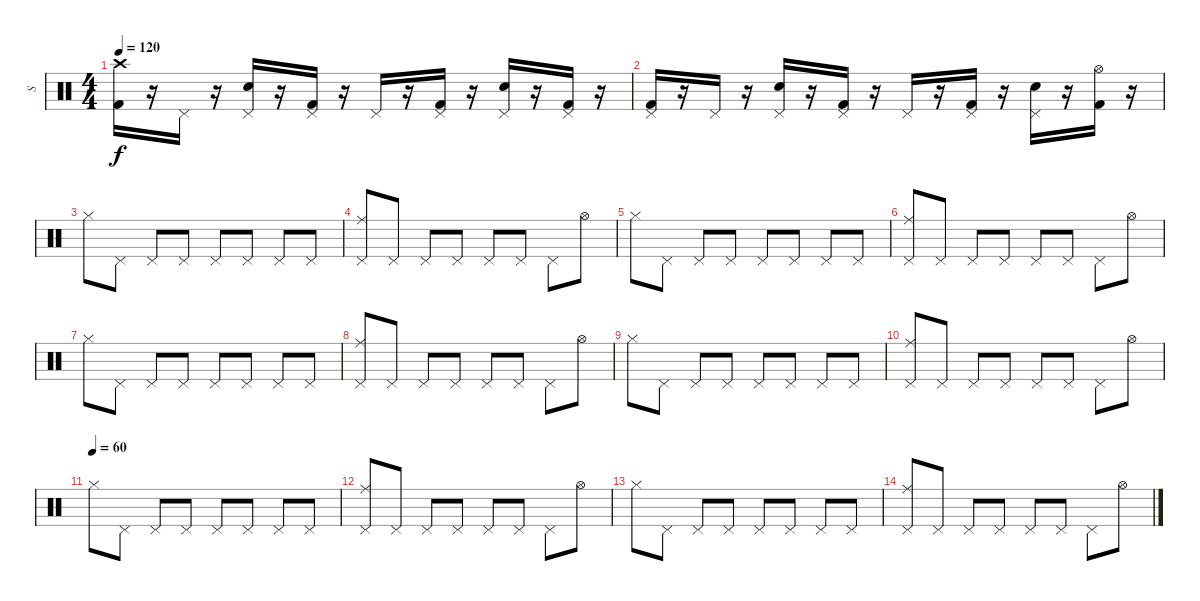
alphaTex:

\track ("  S" "  S") {instrument percussion}
\staff {score}
\articulation defaults
\ts (4 4)
\tempo 120
\clef neutral
\ks c
("Crash high (hit)" "Kick (hit) 2").16{dy f} r.16 "Pedal Hi-Hat (hit)".16 r.16 ("Pedal Hi-Hat (hit)" "Snare (hit) 2").16 r.16 ("Pedal Hi-Hat (hit)" "Kick (hit) 2").16 r.16 "Pedal Hi-Hat (hit)".16 r.16 ("Pedal Hi-Hat (hit)" "Kick (hit) 2").16 r.16 ("Pedal Hi-Hat (hit)" "Snare (hit) 2").16 r.16 ("Pedal Hi-Hat (hit)" "Kick (hit) 2").16 r.16 |
("Pedal Hi-Hat (hit)" "Kick (hit) 2").16 r.16 "Pedal Hi-Hat (hit)".16 r.16 ("Pedal Hi-Hat (hit)" "Snare (hit) 2").16 r.16 ("Pedal Hi-Hat (hit)" "Kick (hit) 2").16 r.16 "Pedal Hi-Hat (hit)".16 r.16 ("Pedal Hi-Hat (hit)" "Kick (hit) 2").16 r.16 ("Pedal Hi-Hat (hit)" "Snare (hit) 2").16 r.16 ("Hi-Hat (open)" "Kick (hit) 2").16 r.16 |
"Hi-Hat (closed)".8 "Pedal Hi-Hat (hit)".8 "Pedal Hi-Hat (hit)".8 "Pedal Hi-Hat (hit)".8 "Pedal Hi-Hat (hit)".8 "Pedal Hi-Hat (hit)".8 "Pedal Hi-Hat (hit)".8 "Pedal Hi-Hat (hit)".8 |
("Pedal Hi-Hat (hit)" "Ride (middle)").8 "Pedal Hi-Hat (hit)".8 "Pedal Hi-Hat (hit)".8 "Pedal Hi-Hat (hit)".8 "Pedal Hi-Hat (hit)".8 "Pedal Hi-Hat (hit)".8 "Pedal Hi-Hat (hit)".8 "Hi-Hat (open)".8 |
"Hi-Hat (closed)".8 "Pedal Hi-Hat (hit)".8 "Pedal Hi-Hat (hit)".8 "Pedal Hi-Hat (hit)".8 "Pedal Hi-Hat (hit)".8 "Pedal Hi-Hat (hit)".8 "Pedal Hi-Hat (hit)".8 "Pedal Hi-Hat (hit)".8 |
("Pedal Hi-Hat (hit)" "Ride (middle)").8 "Pedal Hi-Hat (hit)".8 "Pedal Hi-Hat (hit)".8 "Pedal Hi-Hat (hit)".8 "Pedal Hi-Hat (hit)".8 "Pedal Hi-Hat (hit)".8 "Pedal Hi-Hat (hit)".8 "Hi-Hat (open)".8 |
"Hi-Hat (closed)".8 "Pedal Hi-Hat (hit)".8 "Pedal Hi-Hat (hit)".8 "Pedal Hi-Hat (hit)".8 "Pedal Hi-Hat (hit)".8 "Pedal Hi-Hat (hit)".8 "Pedal Hi-Hat (hit)".8 "Pedal Hi-Hat (hit)".8 |
("Pedal Hi-Hat (hit)" "Ride (middle)").8 "Pedal Hi-Hat (hit)".8 "Pedal Hi-Hat (hit)".8 "Pedal Hi-Hat (hit)".8 "Pedal Hi-Hat (hit)".8 "Pedal Hi-Hat (hit)".8 "Pedal Hi-Hat (hit)".8 "Hi-Hat (open)".8 |
"Hi-Hat (closed)".8 "Pedal Hi-Hat (hit)".8 "Pedal Hi-Hat (hit)".8 "Pedal Hi-Hat (hit)".8 "Pedal Hi-Hat (hit)".8 "Pedal Hi-Hat (hit)".8 "Pedal Hi-Hat (hit)".8 "Pedal Hi-Hat (hit)".8 |
("Pedal Hi-Hat (hit)" "Ride (middle)").8 "Pedal Hi-Hat (hit)".8 "Pedal Hi-Hat (hit)".8 "Pedal Hi-Hat (hit)".8 "Pedal Hi-Hat (hit)".8 "Pedal Hi-Hat (hit)".8 "Pedal Hi-Hat (hit)".8 "Hi-Hat (open)".8 |
\tempo (60)
"Hi-Hat (closed)".8 "Pedal Hi-Hat (hit)".8 "Pedal Hi-Hat (hit)".8 "Pedal Hi-Hat (hit)".8 "Pedal Hi-Hat (hit)".8 "Pedal Hi-Hat (hit)".8 "Pedal Hi-Hat (hit)".8 "Pedal Hi-Hat (hit)".8 |
("Pedal Hi-Hat (hit)" "Ride (middle)").8 "Pedal Hi-Hat (hit)".8 "Pedal Hi-Hat (hit)".8 "Pedal Hi-Hat (hit)".8 "Pedal Hi-Hat (hit)".8 "Pedal Hi-Hat (hit)".8 "Pedal Hi-Hat (hit)".8 "Hi-Hat (open)".8 |
"Hi-Hat (closed)".8 "Pedal Hi-Hat (hit)".8 "Pedal Hi-Hat (hit)".8 "Pedal Hi-Hat (hit)".8 "Pedal Hi-Hat (hit)".8 "Pedal Hi-Hat (hit)".8 "Pedal Hi-Hat (hit)".8 "Pedal Hi-Hat (hit)".8 |
("Pedal Hi-Hat (hit)" "Ride (middle)").8 "Pedal Hi-Hat (hit)".8 "Pedal Hi-Hat (hit)".8 "Pedal Hi-Hat (hit)".8 "Pedal Hi-Hat (hit)".8 "Pedal Hi-Hat (hit)".8 "Pedal Hi-Hat (hit)".8 "Hi-Hat (open)".8
